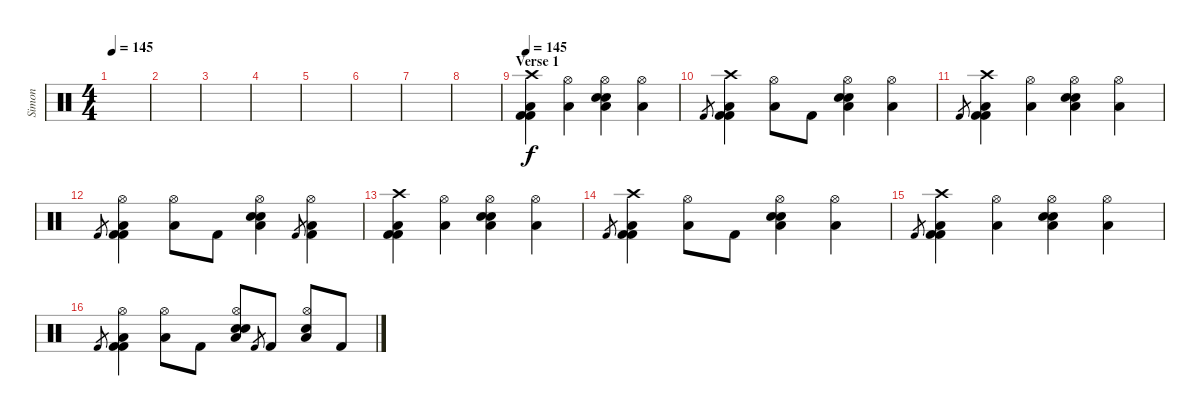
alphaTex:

\track ("Simon" "Simon") {instrument percussion}
\staff {score}
\articulation defaults
\ts (4 4)
\tempo 145
\clef neutral
\ks c
|
|
|
|
|
|
|
|
\section ("" "Verse 1")
\tempo 145
("Crash high (hit)" "Kick (hit) 2" "Kick (hit) 2" "Low Tom (hit)").4 ("Hi-Hat (open)" "Low Tom (hit)").4 ("Hi-Hat (open)" "Electric Snare (hit)" "Electric Snare (hit)" "Low Tom (hit)").4 ("Hi-Hat (open)" "Low Tom (hit)").4 |
"Kick (hit) 2".8{gr} ("Crash high (hit)" "Kick (hit) 2" "Kick (hit) 2" "Low Tom (hit)").4 ("Hi-Hat (open)" "Low Tom (hit)").8 "Kick (hit) 2".8 ("Hi-Hat (open)" "Electric Snare (hit)" "Electric Snare (hit)" "Low Tom (hit)").4 ("Hi-Hat (open)" "Low Tom (hit)").4 |
"Kick (hit) 2".8{gr} ("Crash high (hit)" "Kick (hit) 2" "Kick (hit) 2" "Low Tom (hit)").4 ("Hi-Hat (open)" "Low Tom (hit)").4 ("Hi-Hat (open)" "Electric Snare (hit)" "Electric Snare (hit)" "Low Tom (hit)").4 ("Hi-Hat (open)" "Low Tom (hit)").4 |
"Kick (hit) 2".8{gr} ("Hi-Hat (open)" "Kick (hit) 2" "Kick (hit) 2" "Low Tom (hit)").4 ("Hi-Hat (open)" "Low Tom (hit)").8 "Kick (hit) 2".8 ("Hi-Hat (open)" "Electric Snare (hit)" "Electric Snare (hit)" "Low Tom (hit)").4 "Kick (hit) 2".8{gr} ("Hi-Hat (open)" "Kick (hit) 2" "Low Tom (hit)").4 |
("Crash high (hit)" "Kick (hit) 2" "Kick (hit) 2" "Low Tom (hit)").4 ("Hi-Hat (open)" "Low Tom (hit)").4 ("Hi-Hat (open)" "Electric Snare (hit)" "Electric Snare (hit)" "Low Tom (hit)").4 ("Hi-Hat (open)" "Low Tom (hit)").4 |
"Kick (hit) 2".8{gr} ("Crash high (hit)" "Kick (hit) 2" "Kick (hit) 2" "Low Tom (hit)").4 ("Hi-Hat (open)" "Low Tom (hit)").8 "Kick (hit) 2".8 ("Hi-Hat (open)" "Electric Snare (hit)" "Electric Snare (hit)" "Low Tom (hit)").4 ("Hi-Hat (open)" "Low Tom (hit)").4 |
"Kick (hit) 2".8{gr} ("Crash high (hit)" "Kick (hit) 2" "Kick (hit) 2" "Low Tom (hit)").4 ("Hi-Hat (open)" "Low Tom (hit)").4 ("Hi-Hat (open)" "Electric Snare (hit)" "Electric Snare (hit)" "Low Tom (hit)").4 ("Hi-Hat (open)" "Low Tom (hit)").4 |
"Kick (hit) 2".8{gr} ("Hi-Hat (open)" "Kick (hit) 2" "Kick (hit) 2" "Low Tom (hit)").4 ("Hi-Hat (open)" "Low Tom (hit)").8 "Kick (hit) 2".8 ("Hi-Hat (open)" "Electric Snare (hit)" "Electric Snare (hit)" "Low Tom (hit)").8 "Kick (hit) 2".8{gr} "Kick (hit) 2".8 ("Hi-Hat (open)" "Electric Snare (hit)" "Low Tom (hit)").8 "Kick (hit) 2".8
